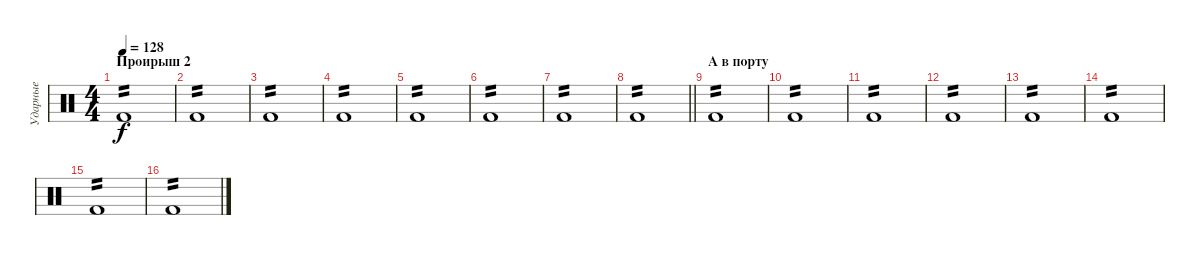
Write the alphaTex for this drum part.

\track ("Ударные" "Ударные") {instrument percussion}
\staff {score}
\articulation defaults
\ts (4 4)
\section ("" "Проирыш 2")
\tempo 128
\clef neutral
\ks c "Kick (hit) 2".1{tp 2 dy f}
|
"Kick (hit) 2".1{tp 2} |
"Kick (hit) 2".1{tp 2} |
"Kick (hit) 2".1{tp 2} |
"Kick (hit) 2".1{tp 2} |
"Kick (hit) 2".1{tp 2} |
"Kick (hit) 2".1{tp 2} |
\barLineRight lightlight "Kick (hit) 2".1{tp 2}
|
\section ("" "А в порту")
"Kick (hit) 2".1{tp 2} |
"Kick (hit) 2".1{tp 2} |
"Kick (hit) 2".1{tp 2} |
"Kick (hit) 2".1{tp 2} |
"Kick (hit) 2".1{tp 2} |
"Kick (hit) 2".1{tp 2} |
"Kick (hit) 2".1{tp 2} |
"Kick (hit) 2".1{tp 2}
